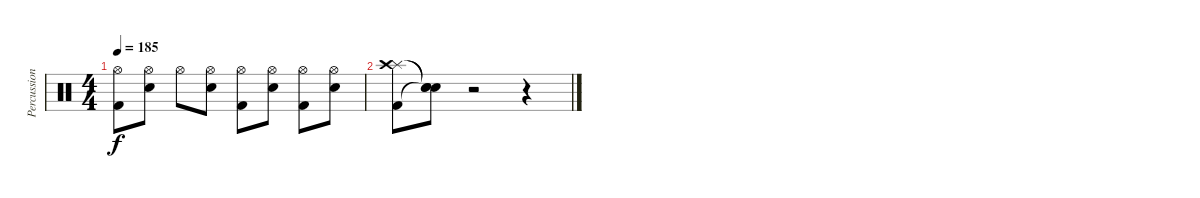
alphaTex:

\track ("Percussion" "Percussion") {instrument percussion}
\staff {score}
\articulation defaults
\ts (4 4)
\tempo 185
\clef neutral
\ks c
("Hi-Hat (open)" "Kick (hit) 2").8{dy f} ("Hi-Hat (open)" "Snare (hit) 2").8 "Hi-Hat (open)".8 ("Hi-Hat (open)" "Snare (hit) 2").8 ("Hi-Hat (open)" "Kick (hit) 2").8 ("Hi-Hat (open)" "Snare (hit) 2").8 ("Hi-Hat (open)" "Kick (hit) 2").8 ("Hi-Hat (open)" "Snare (hit) 2").8 |
("Splash (hit)" "Crash high (hit)" "Kick (hit) 2").8 ("Snare (hit)"{t} "Snare (hit)"{t} "Snare (hit)"{t}).8 r.2 r.4
